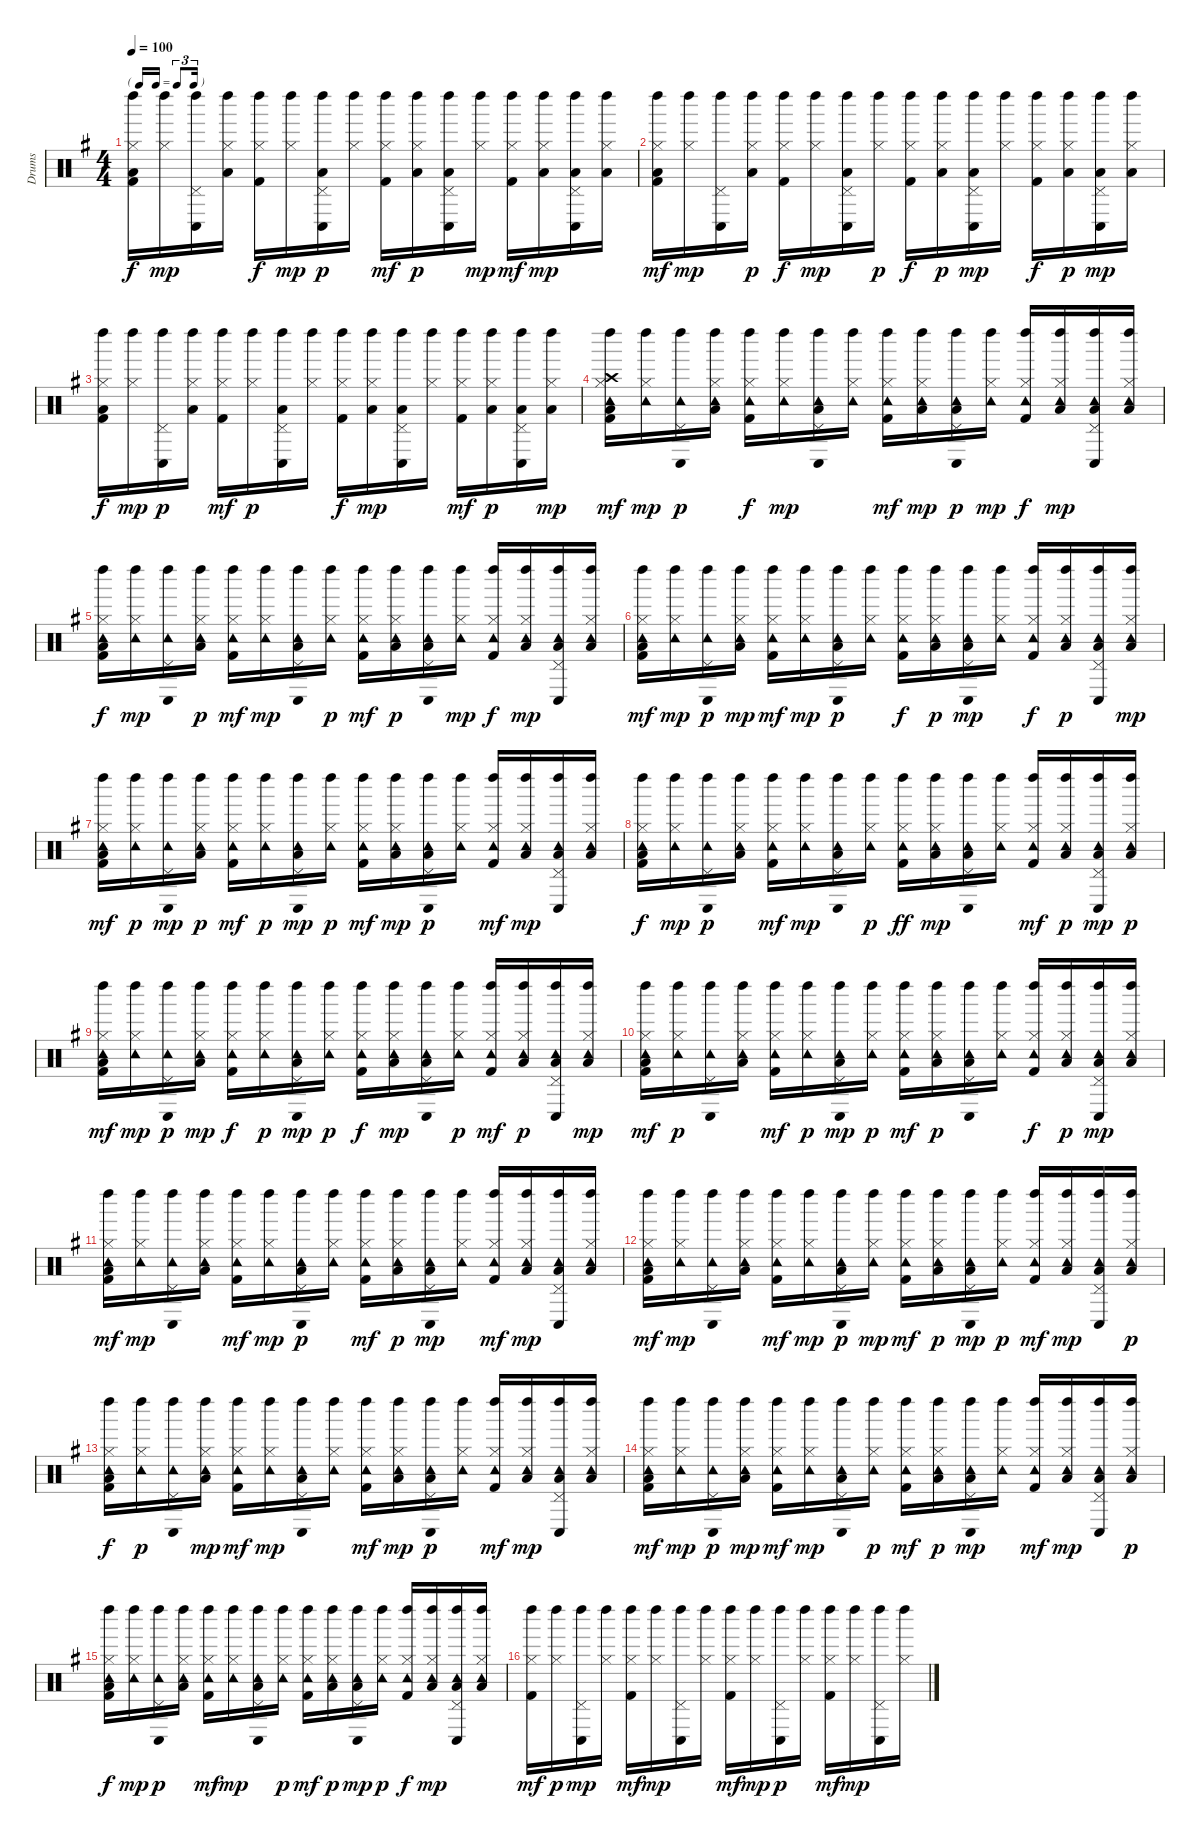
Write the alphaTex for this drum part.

\track ("Drums" "Drums") {instrument percussion}
\staff {score}
\articulation defaults
\ts (4 4)
\tf triplet16th
\tempo 100
\clef neutral
\ks g
("Kick (hit) 2" "Low Floor Tom (hit)" "Hi-Hat (closed)" "Left Maraca (hit)").16{dy f} ("Hi-Hat (closed)" "Left Maraca (hit)").16{dy mp} ("Pedal Hi-Hat (hit)" "Conga low (hit)" "Left Maraca (hit)").16 ("Low Floor Tom (hit)" "Hi-Hat (closed)" "Left Maraca (hit)").16 ("Kick (hit) 2" "Hi-Hat (closed)" "Left Maraca (hit)").16{dy f} ("Hi-Hat (closed)" "Left Maraca (hit)").16{dy mp} ("Low Floor Tom (hit)" "Pedal Hi-Hat (hit)" "Conga low (hit)" "Left Maraca (hit)").16{dy p} ("Hi-Hat (closed)" "Left Maraca (hit)").16 ("Kick (hit) 2" "Hi-Hat (closed)" "Left Maraca (hit)").16{dy mf} ("Low Floor Tom (hit)" "Hi-Hat (closed)" "Left Maraca (hit)").16{dy p} ("Low Floor Tom (hit)" "Pedal Hi-Hat (hit)" "Conga low (hit)" "Left Maraca (hit)").16 ("Hi-Hat (closed)" "Left Maraca (hit)").16{dy mp} ("Kick (hit) 2" "Hi-Hat (closed)" "Left Maraca (hit)").16{dy mf} ("Low Floor Tom (hit)" "Hi-Hat (closed)" "Left Maraca (hit)").16{dy mp} ("Low Floor Tom (hit)" "Pedal Hi-Hat (hit)" "Conga low (hit)" "Left Maraca (hit)").16 ("Low Floor Tom (hit)" "Hi-Hat (closed)" "Left Maraca (hit)").16 |
("Kick (hit) 2" "Low Floor Tom (hit)" "Hi-Hat (closed)" "Left Maraca (hit)").16{dy mf} ("Hi-Hat (closed)" "Left Maraca (hit)").16{dy mp} ("Pedal Hi-Hat (hit)" "Conga low (hit)" "Left Maraca (hit)").16 ("Low Floor Tom (hit)" "Hi-Hat (closed)" "Left Maraca (hit)").16{dy p} ("Kick (hit) 2" "Hi-Hat (closed)" "Left Maraca (hit)").16{dy f} ("Hi-Hat (closed)" "Left Maraca (hit)").16{dy mp} ("Low Floor Tom (hit)" "Pedal Hi-Hat (hit)" "Conga low (hit)" "Left Maraca (hit)").16 ("Hi-Hat (closed)" "Left Maraca (hit)").16{dy p} ("Kick (hit) 2" "Hi-Hat (closed)" "Left Maraca (hit)").16{dy f} ("Low Floor Tom (hit)" "Hi-Hat (closed)" "Left Maraca (hit)").16{dy p} ("Low Floor Tom (hit)" "Pedal Hi-Hat (hit)" "Conga low (hit)" "Left Maraca (hit)").16{dy mp} ("Hi-Hat (closed)" "Left Maraca (hit)").16 ("Kick (hit) 2" "Hi-Hat (closed)" "Left Maraca (hit)").16{dy f} ("Low Floor Tom (hit)" "Hi-Hat (closed)" "Left Maraca (hit)").16{dy p} ("Low Floor Tom (hit)" "Pedal Hi-Hat (hit)" "Conga low (hit)" "Left Maraca (hit)").16{dy mp} ("Low Floor Tom (hit)" "Hi-Hat (closed)" "Left Maraca (hit)").16 |
("Kick (hit) 2" "Low Floor Tom (hit)" "Hi-Hat (closed)" "Left Maraca (hit)").16{dy f} ("Hi-Hat (closed)" "Left Maraca (hit)").16{dy mp} ("Pedal Hi-Hat (hit)" "Conga low (hit)" "Left Maraca (hit)").16{dy p} ("Low Floor Tom (hit)" "Hi-Hat (closed)" "Left Maraca (hit)").16 ("Kick (hit) 2" "Hi-Hat (closed)" "Left Maraca (hit)").16{dy mf} ("Hi-Hat (closed)" "Left Maraca (hit)").16{dy p} ("Low Floor Tom (hit)" "Pedal Hi-Hat (hit)" "Conga low (hit)" "Left Maraca (hit)").16 ("Hi-Hat (closed)" "Left Maraca (hit)").16 ("Kick (hit) 2" "Hi-Hat (closed)" "Left Maraca (hit)").16{dy f} ("Low Floor Tom (hit)" "Hi-Hat (closed)" "Left Maraca (hit)").16{dy mp} ("Low Floor Tom (hit)" "Pedal Hi-Hat (hit)" "Conga low (hit)" "Left Maraca (hit)").16 ("Hi-Hat (closed)" "Left Maraca (hit)").16 ("Kick (hit) 2" "Hi-Hat (closed)" "Left Maraca (hit)").16{dy mf} ("Low Floor Tom (hit)" "Hi-Hat (closed)" "Left Maraca (hit)").16{dy p} ("Low Floor Tom (hit)" "Pedal Hi-Hat (hit)" "Conga low (hit)" "Left Maraca (hit)").16 ("Low Floor Tom (hit)" "Hi-Hat (closed)" "Left Maraca (hit)").16{dy mp} |
("Kick (hit) 2" "Low Floor Tom (hit)" "Hi-Hat (closed)" "Crash high (hit)" "Tambourine (hit)" "Left Maraca (hit)").16{dy mf} ("Hi-Hat (closed)" "Tambourine (hit)" "Left Maraca (hit)").16{dy mp} ("Pedal Hi-Hat (hit)" "Tambourine (hit)" "Conga low (hit)" "Left Maraca (hit)").16{dy p} ("Low Floor Tom (hit)" "Hi-Hat (closed)" "Tambourine (hit)" "Left Maraca (hit)").16 ("Kick (hit) 2" "Hi-Hat (closed)" "Tambourine (hit)" "Left Maraca (hit)").16{dy f} ("Hi-Hat (closed)" "Tambourine (hit)" "Left Maraca (hit)").16{dy mp} ("Low Floor Tom (hit)" "Pedal Hi-Hat (hit)" "Tambourine (hit)" "Conga low (hit)" "Left Maraca (hit)").16 ("Hi-Hat (closed)" "Tambourine (hit)" "Left Maraca (hit)").16 ("Kick (hit) 2" "Hi-Hat (closed)" "Tambourine (hit)" "Left Maraca (hit)").16{dy mf} ("Low Floor Tom (hit)" "Hi-Hat (closed)" "Tambourine (hit)" "Left Maraca (hit)").16{dy mp} ("Low Floor Tom (hit)" "Pedal Hi-Hat (hit)" "Tambourine (hit)" "Conga low (hit)" "Left Maraca (hit)").16{dy p} ("Hi-Hat (closed)" "Tambourine (hit)" "Left Maraca (hit)").16{dy mp} ("Kick (hit) 2" "Hi-Hat (closed)" "Tambourine (hit)" "Left Maraca (hit)").16{dy f} ("Low Floor Tom (hit)" "Hi-Hat (closed)" "Tambourine (hit)" "Left Maraca (hit)").16{dy mp} ("Low Floor Tom (hit)" "Pedal Hi-Hat (hit)" "Tambourine (hit)" "Conga low (hit)" "Left Maraca (hit)").16 ("Low Floor Tom (hit)" "Hi-Hat (closed)" "Tambourine (hit)" "Left Maraca (hit)").16 |
("Kick (hit) 2" "Low Floor Tom (hit)" "Hi-Hat (closed)" "Tambourine (hit)" "Left Maraca (hit)").16{dy f} ("Hi-Hat (closed)" "Tambourine (hit)" "Left Maraca (hit)").16{dy mp} ("Pedal Hi-Hat (hit)" "Tambourine (hit)" "Conga low (hit)" "Left Maraca (hit)").16 ("Low Floor Tom (hit)" "Hi-Hat (closed)" "Tambourine (hit)" "Left Maraca (hit)").16{dy p} ("Kick (hit) 2" "Hi-Hat (closed)" "Tambourine (hit)" "Left Maraca (hit)").16{dy mf} ("Hi-Hat (closed)" "Tambourine (hit)" "Left Maraca (hit)").16{dy mp} ("Low Floor Tom (hit)" "Pedal Hi-Hat (hit)" "Tambourine (hit)" "Conga low (hit)" "Left Maraca (hit)").16 ("Hi-Hat (closed)" "Tambourine (hit)" "Left Maraca (hit)").16{dy p} ("Kick (hit) 2" "Hi-Hat (closed)" "Tambourine (hit)" "Left Maraca (hit)").16{dy mf} ("Low Floor Tom (hit)" "Hi-Hat (closed)" "Tambourine (hit)" "Left Maraca (hit)").16{dy p} ("Low Floor Tom (hit)" "Pedal Hi-Hat (hit)" "Tambourine (hit)" "Conga low (hit)" "Left Maraca (hit)").16 ("Hi-Hat (closed)" "Tambourine (hit)" "Left Maraca (hit)").16{dy mp} ("Kick (hit) 2" "Hi-Hat (closed)" "Tambourine (hit)" "Left Maraca (hit)").16{dy f} ("Low Floor Tom (hit)" "Hi-Hat (closed)" "Tambourine (hit)" "Left Maraca (hit)").16{dy mp} ("Low Floor Tom (hit)" "Pedal Hi-Hat (hit)" "Tambourine (hit)" "Conga low (hit)" "Left Maraca (hit)").16 ("Low Floor Tom (hit)" "Hi-Hat (closed)" "Tambourine (hit)" "Left Maraca (hit)").16 |
("Kick (hit) 2" "Low Floor Tom (hit)" "Hi-Hat (closed)" "Tambourine (hit)" "Left Maraca (hit)").16{dy mf} ("Hi-Hat (closed)" "Tambourine (hit)" "Left Maraca (hit)").16{dy mp} ("Pedal Hi-Hat (hit)" "Tambourine (hit)" "Conga low (hit)" "Left Maraca (hit)").16{dy p} ("Low Floor Tom (hit)" "Hi-Hat (closed)" "Tambourine (hit)" "Left Maraca (hit)").16{dy mp} ("Kick (hit) 2" "Hi-Hat (closed)" "Tambourine (hit)" "Left Maraca (hit)").16{dy mf} ("Hi-Hat (closed)" "Tambourine (hit)" "Left Maraca (hit)").16{dy mp} ("Low Floor Tom (hit)" "Pedal Hi-Hat (hit)" "Tambourine (hit)" "Conga low (hit)" "Left Maraca (hit)").16{dy p} ("Hi-Hat (closed)" "Tambourine (hit)" "Left Maraca (hit)").16 ("Kick (hit) 2" "Hi-Hat (closed)" "Tambourine (hit)" "Left Maraca (hit)").16{dy f} ("Low Floor Tom (hit)" "Hi-Hat (closed)" "Tambourine (hit)" "Left Maraca (hit)").16{dy p} ("Low Floor Tom (hit)" "Pedal Hi-Hat (hit)" "Tambourine (hit)" "Conga low (hit)" "Left Maraca (hit)").16{dy mp} ("Hi-Hat (closed)" "Tambourine (hit)" "Left Maraca (hit)").16 ("Kick (hit) 2" "Hi-Hat (closed)" "Tambourine (hit)" "Left Maraca (hit)").16{dy f} ("Low Floor Tom (hit)" "Hi-Hat (closed)" "Tambourine (hit)" "Left Maraca (hit)").16{dy p} ("Low Floor Tom (hit)" "Pedal Hi-Hat (hit)" "Tambourine (hit)" "Conga low (hit)" "Left Maraca (hit)").16 ("Low Floor Tom (hit)" "Hi-Hat (closed)" "Tambourine (hit)" "Left Maraca (hit)").16{dy mp} |
("Kick (hit) 2" "Low Floor Tom (hit)" "Hi-Hat (closed)" "Tambourine (hit)" "Left Maraca (hit)").16{dy mf} ("Hi-Hat (closed)" "Tambourine (hit)" "Left Maraca (hit)").16{dy p} ("Pedal Hi-Hat (hit)" "Tambourine (hit)" "Conga low (hit)" "Left Maraca (hit)").16{dy mp} ("Low Floor Tom (hit)" "Hi-Hat (closed)" "Tambourine (hit)" "Left Maraca (hit)").16{dy p} ("Kick (hit) 2" "Hi-Hat (closed)" "Tambourine (hit)" "Left Maraca (hit)").16{dy mf} ("Hi-Hat (closed)" "Tambourine (hit)" "Left Maraca (hit)").16{dy p} ("Low Floor Tom (hit)" "Pedal Hi-Hat (hit)" "Tambourine (hit)" "Conga low (hit)" "Left Maraca (hit)").16{dy mp} ("Hi-Hat (closed)" "Tambourine (hit)" "Left Maraca (hit)").16{dy p} ("Kick (hit) 2" "Hi-Hat (closed)" "Tambourine (hit)" "Left Maraca (hit)").16{dy mf} ("Low Floor Tom (hit)" "Hi-Hat (closed)" "Tambourine (hit)" "Left Maraca (hit)").16{dy mp} ("Low Floor Tom (hit)" "Pedal Hi-Hat (hit)" "Tambourine (hit)" "Conga low (hit)" "Left Maraca (hit)").16{dy p} ("Hi-Hat (closed)" "Tambourine (hit)" "Left Maraca (hit)").16 ("Kick (hit) 2" "Hi-Hat (closed)" "Tambourine (hit)" "Left Maraca (hit)").16{dy mf} ("Low Floor Tom (hit)" "Hi-Hat (closed)" "Tambourine (hit)" "Left Maraca (hit)").16{dy mp} ("Low Floor Tom (hit)" "Pedal Hi-Hat (hit)" "Tambourine (hit)" "Conga low (hit)" "Left Maraca (hit)").16 ("Low Floor Tom (hit)" "Hi-Hat (closed)" "Tambourine (hit)" "Left Maraca (hit)").16 |
("Kick (hit) 2" "Low Floor Tom (hit)" "Hi-Hat (closed)" "Tambourine (hit)" "Left Maraca (hit)").16{dy f} ("Hi-Hat (closed)" "Tambourine (hit)" "Left Maraca (hit)").16{dy mp} ("Pedal Hi-Hat (hit)" "Tambourine (hit)" "Conga low (hit)" "Left Maraca (hit)").16{dy p} ("Low Floor Tom (hit)" "Hi-Hat (closed)" "Tambourine (hit)" "Left Maraca (hit)").16 ("Kick (hit) 2" "Hi-Hat (closed)" "Tambourine (hit)" "Left Maraca (hit)").16{dy mf} ("Hi-Hat (closed)" "Tambourine (hit)" "Left Maraca (hit)").16{dy mp} ("Low Floor Tom (hit)" "Pedal Hi-Hat (hit)" "Tambourine (hit)" "Conga low (hit)" "Left Maraca (hit)").16 ("Hi-Hat (closed)" "Tambourine (hit)" "Left Maraca (hit)").16{dy p} ("Kick (hit) 2" "Hi-Hat (closed)" "Tambourine (hit)" "Left Maraca (hit)").16{dy ff} ("Low Floor Tom (hit)" "Hi-Hat (closed)" "Tambourine (hit)" "Left Maraca (hit)").16{dy mp} ("Low Floor Tom (hit)" "Pedal Hi-Hat (hit)" "Tambourine (hit)" "Conga low (hit)" "Left Maraca (hit)").16 ("Hi-Hat (closed)" "Tambourine (hit)" "Left Maraca (hit)").16 ("Kick (hit) 2" "Hi-Hat (closed)" "Tambourine (hit)" "Left Maraca (hit)").16{dy mf} ("Low Floor Tom (hit)" "Hi-Hat (closed)" "Tambourine (hit)" "Left Maraca (hit)").16{dy p} ("Low Floor Tom (hit)" "Pedal Hi-Hat (hit)" "Tambourine (hit)" "Conga low (hit)" "Left Maraca (hit)").16{dy mp} ("Low Floor Tom (hit)" "Hi-Hat (closed)" "Tambourine (hit)" "Left Maraca (hit)").16{dy p} |
("Kick (hit) 2" "Low Floor Tom (hit)" "Hi-Hat (closed)" "Tambourine (hit)" "Left Maraca (hit)").16{dy mf} ("Hi-Hat (closed)" "Tambourine (hit)" "Left Maraca (hit)").16{dy mp} ("Pedal Hi-Hat (hit)" "Tambourine (hit)" "Conga low (hit)" "Left Maraca (hit)").16{dy p} ("Low Floor Tom (hit)" "Hi-Hat (closed)" "Tambourine (hit)" "Left Maraca (hit)").16{dy mp} ("Kick (hit) 2" "Hi-Hat (closed)" "Tambourine (hit)" "Left Maraca (hit)").16{dy f} ("Hi-Hat (closed)" "Tambourine (hit)" "Left Maraca (hit)").16{dy p} ("Low Floor Tom (hit)" "Pedal Hi-Hat (hit)" "Tambourine (hit)" "Conga low (hit)" "Left Maraca (hit)").16{dy mp} ("Hi-Hat (closed)" "Tambourine (hit)" "Left Maraca (hit)").16{dy p} ("Kick (hit) 2" "Hi-Hat (closed)" "Tambourine (hit)" "Left Maraca (hit)").16{dy f} ("Low Floor Tom (hit)" "Hi-Hat (closed)" "Tambourine (hit)" "Left Maraca (hit)").16{dy mp} ("Low Floor Tom (hit)" "Pedal Hi-Hat (hit)" "Tambourine (hit)" "Conga low (hit)" "Left Maraca (hit)").16 ("Hi-Hat (closed)" "Tambourine (hit)" "Left Maraca (hit)").16{dy p} ("Kick (hit) 2" "Hi-Hat (closed)" "Tambourine (hit)" "Left Maraca (hit)").16{dy mf} ("Low Floor Tom (hit)" "Hi-Hat (closed)" "Tambourine (hit)" "Left Maraca (hit)").16{dy p} ("Low Floor Tom (hit)" "Pedal Hi-Hat (hit)" "Tambourine (hit)" "Conga low (hit)" "Left Maraca (hit)").16 ("Low Floor Tom (hit)" "Hi-Hat (closed)" "Tambourine (hit)" "Left Maraca (hit)").16{dy mp} |
("Kick (hit) 2" "Low Floor Tom (hit)" "Hi-Hat (closed)" "Tambourine (hit)" "Left Maraca (hit)").16{dy mf} ("Hi-Hat (closed)" "Tambourine (hit)" "Left Maraca (hit)").16{dy p} ("Pedal Hi-Hat (hit)" "Tambourine (hit)" "Conga low (hit)" "Left Maraca (hit)").16 ("Low Floor Tom (hit)" "Hi-Hat (closed)" "Tambourine (hit)" "Left Maraca (hit)").16 ("Kick (hit) 2" "Hi-Hat (closed)" "Tambourine (hit)" "Left Maraca (hit)").16{dy mf} ("Hi-Hat (closed)" "Tambourine (hit)" "Left Maraca (hit)").16{dy p} ("Low Floor Tom (hit)" "Pedal Hi-Hat (hit)" "Tambourine (hit)" "Conga low (hit)" "Left Maraca (hit)").16{dy mp} ("Hi-Hat (closed)" "Tambourine (hit)" "Left Maraca (hit)").16{dy p} ("Kick (hit) 2" "Hi-Hat (closed)" "Tambourine (hit)" "Left Maraca (hit)").16{dy mf} ("Low Floor Tom (hit)" "Hi-Hat (closed)" "Tambourine (hit)" "Left Maraca (hit)").16{dy p} ("Low Floor Tom (hit)" "Pedal Hi-Hat (hit)" "Tambourine (hit)" "Conga low (hit)" "Left Maraca (hit)").16 ("Hi-Hat (closed)" "Tambourine (hit)" "Left Maraca (hit)").16 ("Kick (hit) 2" "Hi-Hat (closed)" "Tambourine (hit)" "Left Maraca (hit)").16{dy f} ("Low Floor Tom (hit)" "Hi-Hat (closed)" "Tambourine (hit)" "Left Maraca (hit)").16{dy p} ("Low Floor Tom (hit)" "Pedal Hi-Hat (hit)" "Tambourine (hit)" "Conga low (hit)" "Left Maraca (hit)").16{dy mp} ("Low Floor Tom (hit)" "Hi-Hat (closed)" "Tambourine (hit)" "Left Maraca (hit)").16 |
("Kick (hit) 2" "Low Floor Tom (hit)" "Hi-Hat (closed)" "Tambourine (hit)" "Left Maraca (hit)").16{dy mf} ("Hi-Hat (closed)" "Tambourine (hit)" "Left Maraca (hit)").16{dy mp} ("Pedal Hi-Hat (hit)" "Tambourine (hit)" "Conga low (hit)" "Left Maraca (hit)").16 ("Low Floor Tom (hit)" "Hi-Hat (closed)" "Tambourine (hit)" "Left Maraca (hit)").16 ("Kick (hit) 2" "Hi-Hat (closed)" "Tambourine (hit)" "Left Maraca (hit)").16{dy mf} ("Hi-Hat (closed)" "Tambourine (hit)" "Left Maraca (hit)").16{dy mp} ("Low Floor Tom (hit)" "Pedal Hi-Hat (hit)" "Tambourine (hit)" "Conga low (hit)" "Left Maraca (hit)").16{dy p} ("Hi-Hat (closed)" "Tambourine (hit)" "Left Maraca (hit)").16 ("Kick (hit) 2" "Hi-Hat (closed)" "Tambourine (hit)" "Left Maraca (hit)").16{dy mf} ("Low Floor Tom (hit)" "Hi-Hat (closed)" "Tambourine (hit)" "Left Maraca (hit)").16{dy p} ("Low Floor Tom (hit)" "Pedal Hi-Hat (hit)" "Tambourine (hit)" "Conga low (hit)" "Left Maraca (hit)").16{dy mp} ("Hi-Hat (closed)" "Tambourine (hit)" "Left Maraca (hit)").16 ("Kick (hit) 2" "Hi-Hat (closed)" "Tambourine (hit)" "Left Maraca (hit)").16{dy mf} ("Low Floor Tom (hit)" "Hi-Hat (closed)" "Tambourine (hit)" "Left Maraca (hit)").16{dy mp} ("Low Floor Tom (hit)" "Pedal Hi-Hat (hit)" "Tambourine (hit)" "Conga low (hit)" "Left Maraca (hit)").16 ("Low Floor Tom (hit)" "Hi-Hat (closed)" "Tambourine (hit)" "Left Maraca (hit)").16 |
("Kick (hit) 2" "Low Floor Tom (hit)" "Hi-Hat (closed)" "Tambourine (hit)" "Left Maraca (hit)").16{dy mf} ("Hi-Hat (closed)" "Tambourine (hit)" "Left Maraca (hit)").16{dy mp} ("Pedal Hi-Hat (hit)" "Tambourine (hit)" "Conga low (hit)" "Left Maraca (hit)").16 ("Low Floor Tom (hit)" "Hi-Hat (closed)" "Tambourine (hit)" "Left Maraca (hit)").16 ("Kick (hit) 2" "Hi-Hat (closed)" "Tambourine (hit)" "Left Maraca (hit)").16{dy mf} ("Hi-Hat (closed)" "Tambourine (hit)" "Left Maraca (hit)").16{dy mp} ("Low Floor Tom (hit)" "Pedal Hi-Hat (hit)" "Tambourine (hit)" "Conga low (hit)" "Left Maraca (hit)").16{dy p} ("Hi-Hat (closed)" "Tambourine (hit)" "Left Maraca (hit)").16{dy mp} ("Kick (hit) 2" "Hi-Hat (closed)" "Tambourine (hit)" "Left Maraca (hit)").16{dy mf} ("Low Floor Tom (hit)" "Hi-Hat (closed)" "Tambourine (hit)" "Left Maraca (hit)").16{dy p} ("Low Floor Tom (hit)" "Pedal Hi-Hat (hit)" "Tambourine (hit)" "Conga low (hit)" "Left Maraca (hit)").16{dy mp} ("Hi-Hat (closed)" "Tambourine (hit)" "Left Maraca (hit)").16{dy p} ("Kick (hit) 2" "Hi-Hat (closed)" "Tambourine (hit)" "Left Maraca (hit)").16{dy mf} ("Low Floor Tom (hit)" "Hi-Hat (closed)" "Tambourine (hit)" "Left Maraca (hit)").16{dy mp} ("Low Floor Tom (hit)" "Pedal Hi-Hat (hit)" "Tambourine (hit)" "Conga low (hit)" "Left Maraca (hit)").16 ("Low Floor Tom (hit)" "Hi-Hat (closed)" "Tambourine (hit)" "Left Maraca (hit)").16{dy p} |
("Kick (hit) 2" "Low Floor Tom (hit)" "Hi-Hat (closed)" "Tambourine (hit)" "Left Maraca (hit)").16{dy f} ("Hi-Hat (closed)" "Tambourine (hit)" "Left Maraca (hit)").16{dy p} ("Pedal Hi-Hat (hit)" "Tambourine (hit)" "Conga low (hit)" "Left Maraca (hit)").16 ("Low Floor Tom (hit)" "Hi-Hat (closed)" "Tambourine (hit)" "Left Maraca (hit)").16{dy mp} ("Kick (hit) 2" "Hi-Hat (closed)" "Tambourine (hit)" "Left Maraca (hit)").16{dy mf} ("Hi-Hat (closed)" "Tambourine (hit)" "Left Maraca (hit)").16{dy mp} ("Low Floor Tom (hit)" "Pedal Hi-Hat (hit)" "Tambourine (hit)" "Conga low (hit)" "Left Maraca (hit)").16 ("Hi-Hat (closed)" "Tambourine (hit)" "Left Maraca (hit)").16 ("Kick (hit) 2" "Hi-Hat (closed)" "Tambourine (hit)" "Left Maraca (hit)").16{dy mf} ("Low Floor Tom (hit)" "Hi-Hat (closed)" "Tambourine (hit)" "Left Maraca (hit)").16{dy mp} ("Low Floor Tom (hit)" "Pedal Hi-Hat (hit)" "Tambourine (hit)" "Conga low (hit)" "Left Maraca (hit)").16{dy p} ("Hi-Hat (closed)" "Tambourine (hit)" "Left Maraca (hit)").16 ("Kick (hit) 2" "Hi-Hat (closed)" "Tambourine (hit)" "Left Maraca (hit)").16{dy mf} ("Low Floor Tom (hit)" "Hi-Hat (closed)" "Tambourine (hit)" "Left Maraca (hit)").16{dy mp} ("Low Floor Tom (hit)" "Pedal Hi-Hat (hit)" "Tambourine (hit)" "Conga low (hit)" "Left Maraca (hit)").16 ("Low Floor Tom (hit)" "Hi-Hat (closed)" "Tambourine (hit)" "Left Maraca (hit)").16 |
("Kick (hit) 2" "Low Floor Tom (hit)" "Hi-Hat (closed)" "Tambourine (hit)" "Left Maraca (hit)").16{dy mf} ("Hi-Hat (closed)" "Tambourine (hit)" "Left Maraca (hit)").16{dy mp} ("Pedal Hi-Hat (hit)" "Tambourine (hit)" "Conga low (hit)" "Left Maraca (hit)").16{dy p} ("Low Floor Tom (hit)" "Hi-Hat (closed)" "Tambourine (hit)" "Left Maraca (hit)").16{dy mp} ("Kick (hit) 2" "Hi-Hat (closed)" "Tambourine (hit)" "Left Maraca (hit)").16{dy mf} ("Hi-Hat (closed)" "Tambourine (hit)" "Left Maraca (hit)").16{dy mp} ("Low Floor Tom (hit)" "Pedal Hi-Hat (hit)" "Tambourine (hit)" "Conga low (hit)" "Left Maraca (hit)").16 ("Hi-Hat (closed)" "Tambourine (hit)" "Left Maraca (hit)").16{dy p} ("Kick (hit) 2" "Hi-Hat (closed)" "Tambourine (hit)" "Left Maraca (hit)").16{dy mf} ("Low Floor Tom (hit)" "Hi-Hat (closed)" "Tambourine (hit)" "Left Maraca (hit)").16{dy p} ("Low Floor Tom (hit)" "Pedal Hi-Hat (hit)" "Tambourine (hit)" "Conga low (hit)" "Left Maraca (hit)").16{dy mp} ("Hi-Hat (closed)" "Tambourine (hit)" "Left Maraca (hit)").16 ("Kick (hit) 2" "Hi-Hat (closed)" "Tambourine (hit)" "Left Maraca (hit)").16{dy mf} ("Low Floor Tom (hit)" "Hi-Hat (closed)" "Tambourine (hit)" "Left Maraca (hit)").16{dy mp} ("Low Floor Tom (hit)" "Pedal Hi-Hat (hit)" "Tambourine (hit)" "Conga low (hit)" "Left Maraca (hit)").16 ("Low Floor Tom (hit)" "Hi-Hat (closed)" "Tambourine (hit)" "Left Maraca (hit)").16{dy p} |
("Kick (hit) 2" "Low Floor Tom (hit)" "Hi-Hat (closed)" "Tambourine (hit)" "Left Maraca (hit)").16{dy f} ("Hi-Hat (closed)" "Tambourine (hit)" "Left Maraca (hit)").16{dy mp} ("Pedal Hi-Hat (hit)" "Tambourine (hit)" "Conga low (hit)" "Left Maraca (hit)").16{dy p} ("Low Floor Tom (hit)" "Hi-Hat (closed)" "Tambourine (hit)" "Left Maraca (hit)").16 ("Kick (hit) 2" "Hi-Hat (closed)" "Tambourine (hit)" "Left Maraca (hit)").16{dy mf} ("Hi-Hat (closed)" "Tambourine (hit)" "Left Maraca (hit)").16{dy mp} ("Low Floor Tom (hit)" "Pedal Hi-Hat (hit)" "Tambourine (hit)" "Conga low (hit)" "Left Maraca (hit)").16 ("Hi-Hat (closed)" "Tambourine (hit)" "Left Maraca (hit)").16{dy p} ("Kick (hit) 2" "Hi-Hat (closed)" "Tambourine (hit)" "Left Maraca (hit)").16{dy mf} ("Low Floor Tom (hit)" "Hi-Hat (closed)" "Tambourine (hit)" "Left Maraca (hit)").16{dy p} ("Low Floor Tom (hit)" "Pedal Hi-Hat (hit)" "Tambourine (hit)" "Conga low (hit)" "Left Maraca (hit)").16{dy mp} ("Hi-Hat (closed)" "Tambourine (hit)" "Left Maraca (hit)").16{dy p} ("Kick (hit) 2" "Hi-Hat (closed)" "Tambourine (hit)" "Left Maraca (hit)").16{dy f} ("Low Floor Tom (hit)" "Hi-Hat (closed)" "Tambourine (hit)" "Left Maraca (hit)").16{dy mp} ("Low Floor Tom (hit)" "Pedal Hi-Hat (hit)" "Tambourine (hit)" "Conga low (hit)" "Left Maraca (hit)").16 ("Low Floor Tom (hit)" "Hi-Hat (closed)" "Tambourine (hit)" "Left Maraca (hit)").16 |
("Kick (hit) 2" "Hi-Hat (closed)" "Left Maraca (hit)").16{dy mf} ("Hi-Hat (closed)" "Left Maraca (hit)").16{dy p} ("Pedal Hi-Hat (hit)" "Conga low (hit)" "Left Maraca (hit)").16{dy mp} ("Hi-Hat (closed)" "Left Maraca (hit)").16 ("Kick (hit) 2" "Hi-Hat (closed)" "Left Maraca (hit)").16{dy mf} ("Hi-Hat (closed)" "Left Maraca (hit)").16{dy mp} ("Pedal Hi-Hat (hit)" "Conga low (hit)" "Left Maraca (hit)").16 ("Hi-Hat (closed)" "Left Maraca (hit)").16 ("Kick (hit) 2" "Hi-Hat (closed)" "Left Maraca (hit)").16{dy mf} ("Hi-Hat (closed)" "Left Maraca (hit)").16{dy mp} ("Pedal Hi-Hat (hit)" "Conga low (hit)" "Left Maraca (hit)").16{dy p} ("Hi-Hat (closed)" "Left Maraca (hit)").16 ("Kick (hit) 2" "Hi-Hat (closed)" "Left Maraca (hit)").16{dy mf} ("Hi-Hat (closed)" "Left Maraca (hit)").16{dy mp} ("Pedal Hi-Hat (hit)" "Conga low (hit)" "Left Maraca (hit)").16 ("Hi-Hat (closed)" "Left Maraca (hit)").16
